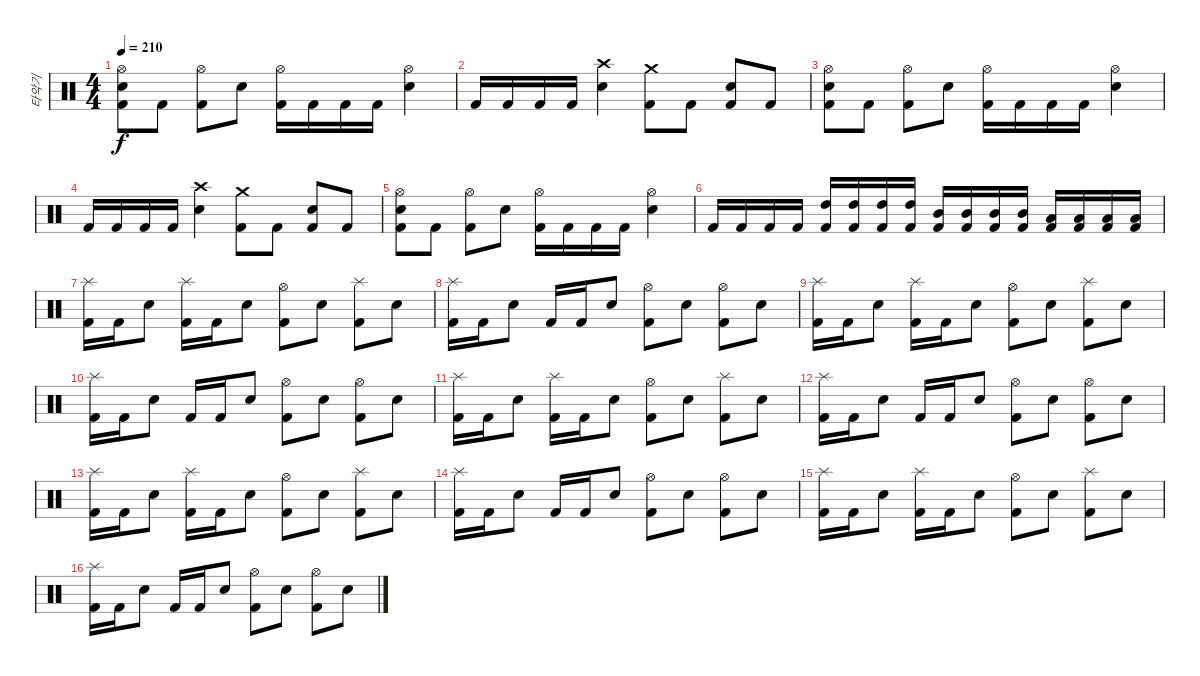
\track ("타악기" "타악기") {instrument percussion}
\staff {score}
\articulation defaults
\ts (4 4)
\tempo 210
\clef neutral
\ks c
("Hi-Hat (open)" "Snare (hit) 2" "Kick (hit) 2").8{dy f} "Kick (hit) 2".8 ("Hi-Hat (open)" "Kick (hit) 2").8 "Snare (hit) 2".8 ("Hi-Hat (open)" "Kick (hit) 2").16 "Kick (hit) 2".16 "Kick (hit) 2".16 "Kick (hit) 2".16 ("Hi-Hat (open)" "Snare (hit) 2").4 |
"Kick (hit) 2".16 "Kick (hit) 2".16 "Kick (hit) 2".16 "Kick (hit) 2".16 ("Crash high (hit)" "Snare (hit) 2").4 ("Crash medium (hit)" "Kick (hit) 2").8 "Kick (hit) 2".8 ("Snare (hit) 2" "Kick (hit) 2").8 "Kick (hit) 2".8 |
("Hi-Hat (open)" "Snare (hit) 2" "Kick (hit) 2").8 "Kick (hit) 2".8 ("Hi-Hat (open)" "Kick (hit) 2").8 "Snare (hit) 2".8 ("Hi-Hat (open)" "Kick (hit) 2").16 "Kick (hit) 2".16 "Kick (hit) 2".16 "Kick (hit) 2".16 ("Hi-Hat (open)" "Snare (hit) 2").4 |
"Kick (hit) 2".16 "Kick (hit) 2".16 "Kick (hit) 2".16 "Kick (hit) 2".16 ("Crash high (hit)" "Snare (hit) 2").4 ("Crash medium (hit)" "Kick (hit) 2").8 "Kick (hit) 2".8 ("Snare (hit) 2" "Kick (hit) 2").8 "Kick (hit) 2".8 |
("Hi-Hat (open)" "Snare (hit) 2" "Kick (hit) 2").8 "Kick (hit) 2".8 ("Hi-Hat (open)" "Kick (hit) 2").8 "Snare (hit) 2".8 ("Hi-Hat (open)" "Kick (hit) 2").16 "Kick (hit) 2".16 "Kick (hit) 2".16 "Kick (hit) 2".16 ("Hi-Hat (open)" "Snare (hit) 2").4 |
"Kick (hit) 2".16 "Kick (hit) 2".16 "Kick (hit) 2".16 "Kick (hit) 2".16 ("High Tom (hit)" "Kick (hit) 2").16 ("High Tom (hit)" "Kick (hit) 2").16 ("High Tom (hit)" "Kick (hit) 2").16 ("High Tom (hit)" "Kick (hit) 2").16 ("Mid Tom (hit)" "Kick (hit) 2").16 ("Mid Tom (hit)" "Kick (hit) 2").16 ("Mid Tom (hit)" "Kick (hit) 2").16 ("Mid Tom (hit)" "Kick (hit) 2").16 ("Low Tom (hit)" "Kick (hit) 2").16 ("Low Tom (hit)" "Kick (hit) 2").16 ("Low Tom (hit)" "Kick (hit) 2").16 ("Low Tom (hit)" "Kick (hit) 2").16 |
("Splash (hit)" "Kick (hit) 2").16 "Kick (hit) 2".16 "Snare (hit) 2".8 ("Splash (hit)" "Kick (hit) 2").16 "Kick (hit) 2".16 "Snare (hit) 2".8 ("Hi-Hat (open)" "Kick (hit) 2").8 "Snare (hit) 2".8 ("Splash (hit)" "Kick (hit) 2").8 "Snare (hit) 2".8 |
("Splash (hit)" "Kick (hit) 2").16 "Kick (hit) 2".16 "Snare (hit) 2".8 "Kick (hit) 2".16 "Kick (hit) 2".16 "Snare (hit) 2".8 ("Hi-Hat (open)" "Kick (hit) 2").8 "Snare (hit) 2".8 ("Hi-Hat (open)" "Kick (hit) 2").8 "Snare (hit) 2".8 |
("Splash (hit)" "Kick (hit) 2").16 "Kick (hit) 2".16 "Snare (hit) 2".8 ("Splash (hit)" "Kick (hit) 2").16 "Kick (hit) 2".16 "Snare (hit) 2".8 ("Hi-Hat (open)" "Kick (hit) 2").8 "Snare (hit) 2".8 ("Splash (hit)" "Kick (hit) 2").8 "Snare (hit) 2".8 |
("Splash (hit)" "Kick (hit) 2").16 "Kick (hit) 2".16 "Snare (hit) 2".8 "Kick (hit) 2".16 "Kick (hit) 2".16 "Snare (hit) 2".8 ("Hi-Hat (open)" "Kick (hit) 2").8 "Snare (hit) 2".8 ("Hi-Hat (open)" "Kick (hit) 2").8 "Snare (hit) 2".8 |
("Splash (hit)" "Kick (hit) 2").16 "Kick (hit) 2".16 "Snare (hit) 2".8 ("Splash (hit)" "Kick (hit) 2").16 "Kick (hit) 2".16 "Snare (hit) 2".8 ("Hi-Hat (open)" "Kick (hit) 2").8 "Snare (hit) 2".8 ("Splash (hit)" "Kick (hit) 2").8 "Snare (hit) 2".8 |
("Splash (hit)" "Kick (hit) 2").16 "Kick (hit) 2".16 "Snare (hit) 2".8 "Kick (hit) 2".16 "Kick (hit) 2".16 "Snare (hit) 2".8 ("Hi-Hat (open)" "Kick (hit) 2").8 "Snare (hit) 2".8 ("Hi-Hat (open)" "Kick (hit) 2").8 "Snare (hit) 2".8 |
("Splash (hit)" "Kick (hit) 2").16 "Kick (hit) 2".16 "Snare (hit) 2".8 ("Splash (hit)" "Kick (hit) 2").16 "Kick (hit) 2".16 "Snare (hit) 2".8 ("Hi-Hat (open)" "Kick (hit) 2").8 "Snare (hit) 2".8 ("Splash (hit)" "Kick (hit) 2").8 "Snare (hit) 2".8 |
("Splash (hit)" "Kick (hit) 2").16 "Kick (hit) 2".16 "Snare (hit) 2".8 "Kick (hit) 2".16 "Kick (hit) 2".16 "Snare (hit) 2".8 ("Hi-Hat (open)" "Kick (hit) 2").8 "Snare (hit) 2".8 ("Hi-Hat (open)" "Kick (hit) 2").8 "Snare (hit) 2".8 |
("Splash (hit)" "Kick (hit) 2").16 "Kick (hit) 2".16 "Snare (hit) 2".8 ("Splash (hit)" "Kick (hit) 2").16 "Kick (hit) 2".16 "Snare (hit) 2".8 ("Hi-Hat (open)" "Kick (hit) 2").8 "Snare (hit) 2".8 ("Splash (hit)" "Kick (hit) 2").8 "Snare (hit) 2".8 |
("Splash (hit)" "Kick (hit) 2").16 "Kick (hit) 2".16 "Snare (hit) 2".8 "Kick (hit) 2".16 "Kick (hit) 2".16 "Snare (hit) 2".8 ("Hi-Hat (open)" "Kick (hit) 2").8 "Snare (hit) 2".8 ("Hi-Hat (open)" "Kick (hit) 2").8 "Snare (hit) 2".8
